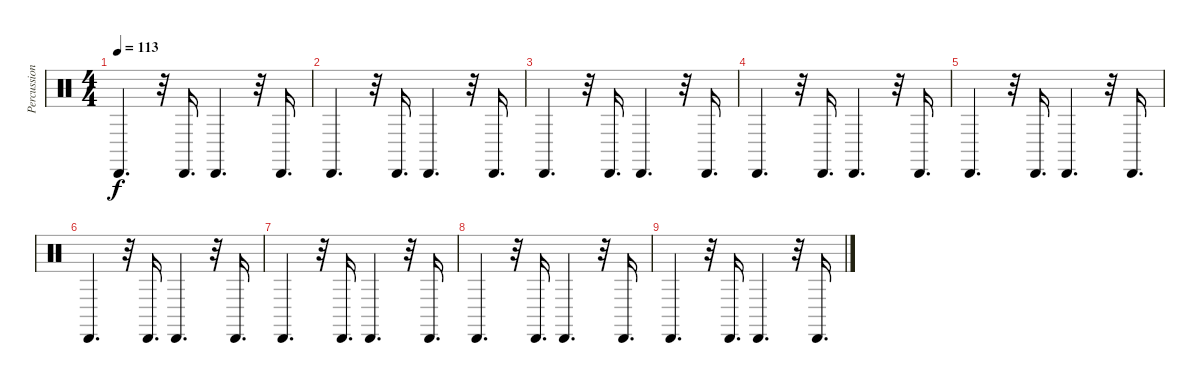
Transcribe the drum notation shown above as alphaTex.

\track ("Percussion" "Percussion") {instrument percussion}
\staff {score}
\articulation defaults
\ts (4 4)
\tempo 113
\clef neutral
\ks c "Cabasa (hit)".4{d dy f}
r.32 "Cabasa (hit)".16{d} "Cabasa (hit)".4{d} r.32 "Cabasa (hit)".16{d} |
"Cabasa (hit)".4{d} r.32 "Cabasa (hit)".16{d} "Cabasa (hit)".4{d} r.32 "Cabasa (hit)".16{d} |
"Cabasa (hit)".4{d} r.32 "Cabasa (hit)".16{d} "Cabasa (hit)".4{d} r.32 "Cabasa (hit)".16{d} |
"Cabasa (hit)".4{d} r.32 "Cabasa (hit)".16{d} "Cabasa (hit)".4{d} r.32 "Cabasa (hit)".16{d} |
"Cabasa (hit)".4{d} r.32 "Cabasa (hit)".16{d} "Cabasa (hit)".4{d} r.32 "Cabasa (hit)".16{d} |
"Cabasa (hit)".4{d} r.32 "Cabasa (hit)".16{d} "Cabasa (hit)".4{d} r.32 "Cabasa (hit)".16{d} |
"Cabasa (hit)".4{d} r.32 "Cabasa (hit)".16{d} "Cabasa (hit)".4{d} r.32 "Cabasa (hit)".16{d} |
"Cabasa (hit)".4{d} r.32 "Cabasa (hit)".16{d} "Cabasa (hit)".4{d} r.32 "Cabasa (hit)".16{d} |
"Cabasa (hit)".4{d} r.32 "Cabasa (hit)".16{d} "Cabasa (hit)".4{d} r.32 "Cabasa (hit)".16{d}
